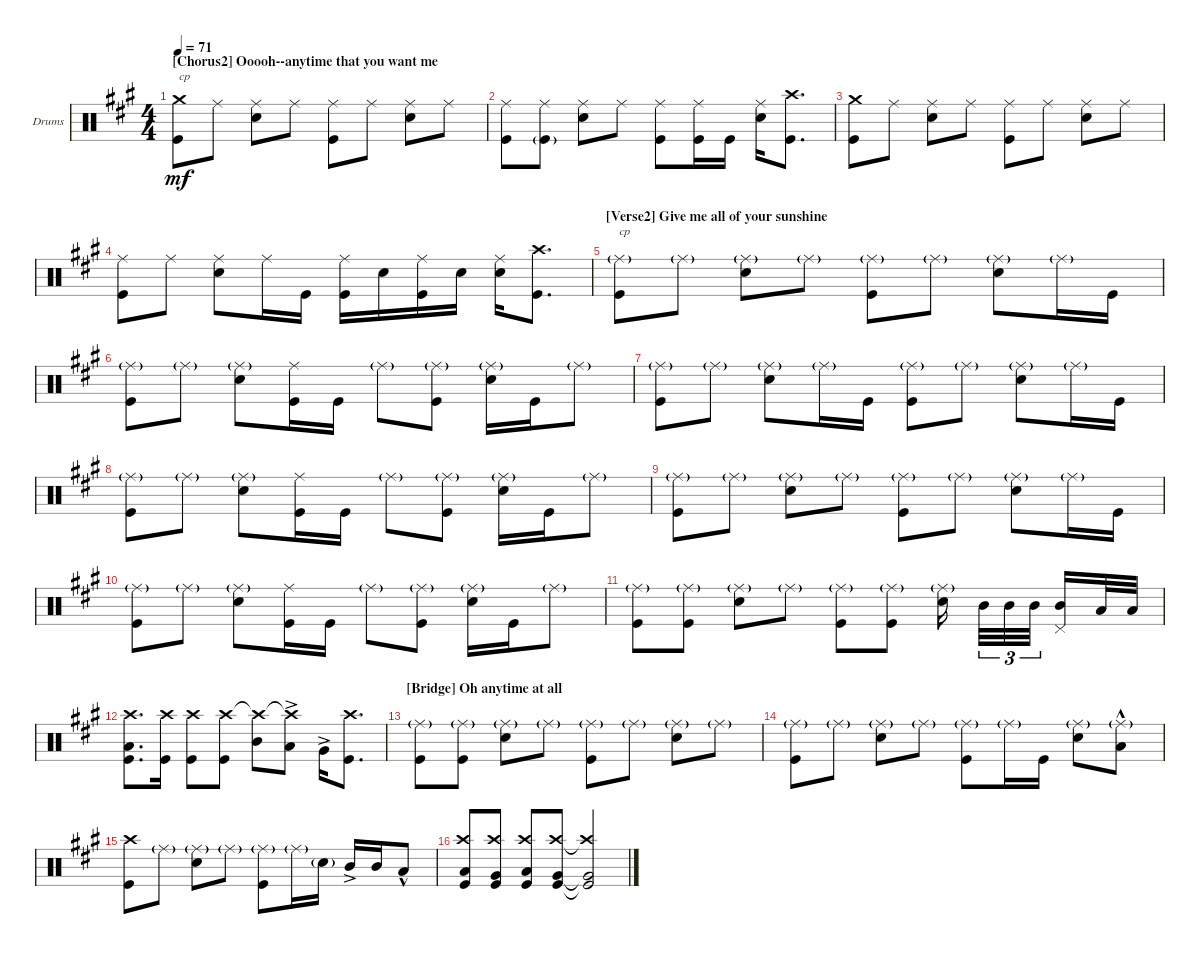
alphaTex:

\defaultSystemsLayout 4
\bracketExtendMode groupsimilarinstruments
\firstSystemTrackNameOrientation horizontal
\otherSystemsTrackNameOrientation horizontal
\track ("Drumkit" "Drums") {instrument percussion}
\staff {score}
\articulation defaults
\ts (4 4)
\section ("" "[Chorus2] Ooooh--anytime that you want me")
\tempo 71
\clef neutral
\ks a
("Kick (hit)" "Crash medium (hit)").8{txt "cp" dy mf} "Ride (middle)".8 ("Ride (middle)" "Snare (hit) 2").8 "Ride (middle)".8 ("Ride (middle)" "Kick (hit)").8 "Ride (middle)".8 ("Ride (middle)" "Snare (hit) 2").8 "Ride (middle)".8 |
("Ride (middle)" "Kick (hit)").8 ("Ride (middle)" "Kick (hit)"{g}).8 ("Ride (middle)" "Snare (hit) 2").8 "Ride (middle)".8 ("Ride (middle)" "Kick (hit)").8 ("Ride (middle)" "Kick (hit)").16 "Kick (hit)".16 ("Ride (middle)" "Snare (hit) 2").16 ("Crash high (hit)" "Kick (hit)").8{d} |
("Kick (hit)" "Crash medium (hit)").8 "Ride (middle)".8 ("Ride (middle)" "Snare (hit) 2").8 "Ride (middle)".8 ("Ride (middle)" "Kick (hit)").8 "Ride (middle)".8 ("Ride (middle)" "Snare (hit) 2").8 "Ride (middle)".8 |
("Ride (middle)" "Kick (hit)").8 "Ride (middle)".8 ("Ride (middle)" "Snare (hit) 2").8 "Ride (middle)".16 "Kick (hit)".16 ("Ride (middle)" "Kick (hit)").16 "Snare (hit) 2".16 ("Ride (middle)" "Kick (hit)").16 "Snare (hit) 2".16 ("Ride (middle)" "Snare (hit) 2").16 ("Crash high (hit)" "Kick (hit)").8{d} |
\section ("" "[Verse2] Give me all of your sunshine")
("Ride (middle)"{g} "Kick (hit)").8{txt "cp"} "Ride (middle)"{g}.8 ("Ride (middle)"{g} "Snare (hit) 2").8 "Ride (middle)"{g}.8 ("Ride (middle)"{g} "Kick (hit)").8 "Ride (middle)"{g}.8 ("Ride (middle)"{g} "Snare (hit) 2").8 "Ride (middle)"{g}.16 "Kick (hit)".16 |
("Ride (middle)"{g} "Kick (hit)").8 "Ride (middle)"{g}.8 ("Ride (middle)"{g} "Snare (hit) 2").8 ("Kick (hit)" "Ride (middle)").16 "Kick (hit)".16 "Ride (middle)"{g}.8 ("Ride (middle)"{g} "Kick (hit)").8 ("Ride (middle)"{g} "Snare (hit) 2").16 "Kick (hit)".16 "Ride (middle)"{g}.8 |
("Ride (middle)"{g} "Kick (hit)").8 "Ride (middle)"{g}.8 ("Ride (middle)"{g} "Snare (hit) 2").8 "Ride (middle)"{g}.16 "Kick (hit)".16 ("Ride (middle)"{g} "Kick (hit)").8 "Ride (middle)"{g}.8 ("Ride (middle)"{g} "Snare (hit) 2").8 "Ride (middle)"{g}.16 "Kick (hit)".16 |
("Ride (middle)"{g} "Kick (hit)").8 "Ride (middle)"{g}.8 ("Ride (middle)"{g} "Snare (hit) 2").8 ("Kick (hit)" "Ride (middle)").16 "Kick (hit)".16 "Ride (middle)"{g}.8 ("Ride (middle)"{g} "Kick (hit)").8 ("Ride (middle)"{g} "Snare (hit) 2").16 "Kick (hit)".16 "Ride (middle)"{g}.8 |
("Ride (middle)"{g} "Kick (hit)").8 "Ride (middle)"{g}.8 ("Ride (middle)"{g} "Snare (hit) 2").8 "Ride (middle)"{g}.8 ("Ride (middle)"{g} "Kick (hit)").8 "Ride (middle)"{g}.8 ("Ride (middle)"{g} "Snare (hit) 2").8 "Ride (middle)"{g}.16 "Kick (hit)".16 |
("Ride (middle)"{g} "Kick (hit)").8 "Ride (middle)"{g}.8 ("Ride (middle)"{g} "Snare (hit) 2").8 ("Kick (hit)" "Ride (middle)").16 "Kick (hit)".16 "Ride (middle)"{g}.8 ("Ride (middle)"{g} "Kick (hit)").8 ("Ride (middle)"{g} "Snare (hit) 2").16 "Kick (hit)".16 "Ride (middle)"{g}.8 |
("Ride (middle)"{g} "Kick (hit)").8 ("Ride (middle)"{g} "Kick (hit)").8 ("Ride (middle)"{g} "Snare (hit) 2").8 "Ride (middle)"{g}.8 ("Ride (middle)"{g} "Kick (hit)").8 ("Ride (middle)"{g} "Kick (hit)").8 ("Ride (middle)"{g} "Snare (hit) 2").16 "Mid Tom (hit)".32{tu (3 2)} "Mid Tom (hit)".32{tu (3 2)} "Mid Tom (hit)".32{tu (3 2)} ("Mid Tom (hit)" "Pedal Hi-Hat (hit)").16 "Low Tom (hit)".32 "Low Tom (hit)".32 |
("Kick (hit)" "Crash high (hit)" "Low Tom (hit)").8{d} ("Kick (hit)" "Crash high (hit)").16 ("Kick (hit)" "Crash high (hit)").8 ("Kick (hit)" "Crash high (hit)").8 ("Mid Tom (hit)" "Crash high (hit)"{t}).8 ("Low Tom (hit)"{ac} "Crash high (hit)"{t}).8 "Very Low Tom (hit)"{ac}.16 ("Kick (hit)" "Crash high (hit)").8{d} |
\section ("" "[Bridge] Oh anytime at all")
("Ride (middle)"{g} "Kick (hit)").8 ("Ride (middle)"{g} "Kick (hit)").8 ("Ride (middle)"{g} "Snare (hit) 2").8 "Ride (middle)"{g}.8 ("Ride (middle)"{g} "Kick (hit)").8 "Ride (middle)"{g}.8 ("Ride (middle)"{g} "Snare (hit) 2").8 "Ride (middle)"{g}.8 |
("Ride (middle)"{g} "Kick (hit)").8 "Ride (middle)"{g}.8 ("Ride (middle)"{g} "Snare (hit) 2").8 "Ride (middle)"{g}.8 ("Ride (middle)"{g} "Kick (hit)").8 "Ride (middle)"{g}.16 "Kick (hit)".16 ("Ride (middle)"{g} "Snare (hit) 2").8 ("Ride (middle)"{g} "Low Tom (hit)"{hac}).8 |
("Kick (hit)" "Crash high (hit)").8 "Ride (middle)"{g}.8 ("Ride (middle)"{g} "Snare (hit) 2").8 "Ride (middle)"{g}.8 ("Ride (middle)"{g} "Kick (hit)").8 "Ride (middle)"{g}.16 "Snare (hit) 2"{g}.16 "Mid Tom (hit)"{ac}.16 "Mid Tom (hit)".16 "Low Tom (hit)"{hac}.8 |
("Crash high (hit)" "Kick (hit)" "Low Tom (hit)").8 ("Crash high (hit)" "Kick (hit)" "Very Low Tom (hit)").8 ("Crash high (hit)" "Kick (hit)" "Low Tom (hit)").8 ("Crash high (hit)" "Kick (hit)" "Very Low Tom (hit)").8 ("Crash high (hit)"{t} "Kick (hit)"{t} "Very Low Tom (hit)"{t}).2
